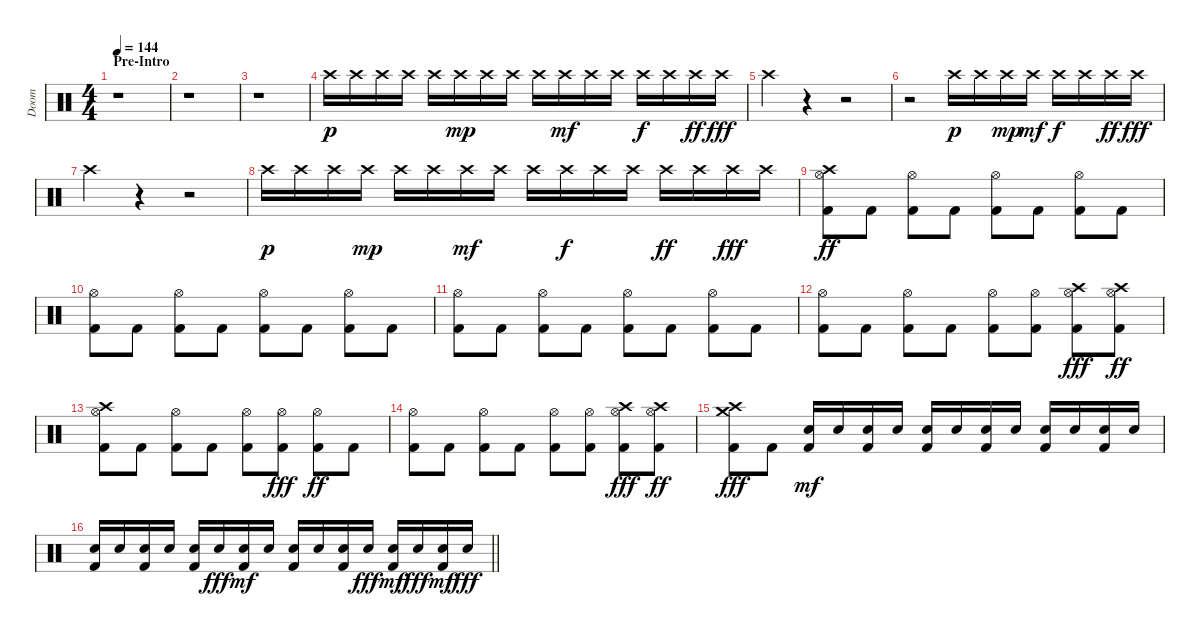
\track ("Doom" "Doom") {instrument percussion}
\staff {score}
\articulation defaults
\ts (4 4)
\section ("" "Pre-Intro")
\tempo 144
\clef neutral
\ks c
r.1{dy p} |
r.1 |
r.1 |
"Crash high (hit)".16 "Crash high (hit)".16 "Crash high (hit)".16 "Crash high (hit)".16 "Crash high (hit)".16 "Crash high (hit)".16{dy mp} "Crash high (hit)".16 "Crash high (hit)".16 "Crash high (hit)".16 "Crash high (hit)".16{dy mf} "Crash high (hit)".16 "Crash high (hit)".16 "Crash high (hit)".16{dy f} "Crash high (hit)".16 "Crash high (hit)".16{dy ff} "Crash high (hit)".16{dy fff} |
"Crash high (hit)".4 r.4 r.2 |
r.2 "Crash high (hit)".16{dy p} "Crash high (hit)".16 "Crash high (hit)".16{dy mp} "Crash high (hit)".16{dy mf} "Crash high (hit)".16{dy f} "Crash high (hit)".16 "Crash high (hit)".16{dy ff} "Crash high (hit)".16{dy fff} |
"Crash high (hit)".4 r.4 r.2 |
"Crash high (hit)".16{dy p} "Crash high (hit)".16 "Crash high (hit)".16 "Crash high (hit)".16{dy mp} "Crash high (hit)".16 "Crash high (hit)".16 "Crash high (hit)".16{dy mf} "Crash high (hit)".16 "Crash high (hit)".16 "Crash high (hit)".16{dy f} "Crash high (hit)".16 "Crash high (hit)".16 "Crash high (hit)".16{dy ff} "Crash high (hit)".16 "Crash high (hit)".16{dy fff} "Crash high (hit)".16 |
("Crash high (hit)" "Kick (hit) 2" "Hi-Hat (open)").8{dy ff} "Kick (hit) 2".8 ("Kick (hit) 2" "Hi-Hat (open)").8 "Kick (hit) 2".8 ("Kick (hit) 2" "Hi-Hat (open)").8 "Kick (hit) 2".8 ("Kick (hit) 2" "Hi-Hat (open)").8 "Kick (hit) 2".8 |
("Kick (hit) 2" "Hi-Hat (open)").8 "Kick (hit) 2".8 ("Kick (hit) 2" "Hi-Hat (open)").8 "Kick (hit) 2".8 ("Kick (hit) 2" "Hi-Hat (open)").8 "Kick (hit) 2".8 ("Kick (hit) 2" "Hi-Hat (open)").8 "Kick (hit) 2".8 |
("Kick (hit) 2" "Hi-Hat (open)").8 "Kick (hit) 2".8 ("Kick (hit) 2" "Hi-Hat (open)").8 "Kick (hit) 2".8 ("Kick (hit) 2" "Hi-Hat (open)").8 "Kick (hit) 2".8 ("Kick (hit) 2" "Hi-Hat (open)").8 "Kick (hit) 2".8 |
("Kick (hit) 2" "Hi-Hat (open)").8 "Kick (hit) 2".8 ("Kick (hit) 2" "Hi-Hat (open)").8 "Kick (hit) 2".8 ("Kick (hit) 2" "Hi-Hat (open)").8 ("Kick (hit) 2" "Hi-Hat (open)").8 ("Kick (hit) 2" "Hi-Hat (open)" "Crash high (hit)").8{dy fff} ("Kick (hit) 2" "Hi-Hat (open)" "Crash high (hit)").8{dy ff} |
("Crash high (hit)" "Kick (hit) 2" "Hi-Hat (open)").8 "Kick (hit) 2".8 ("Kick (hit) 2" "Hi-Hat (open)").8 "Kick (hit) 2".8 ("Kick (hit) 2" "Hi-Hat (open)").8 ("Kick (hit) 2" "Hi-Hat (open)").8{dy fff} ("Kick (hit) 2" "Hi-Hat (open)").8{dy ff} "Kick (hit) 2".8 |
("Kick (hit) 2" "Hi-Hat (open)").8 "Kick (hit) 2".8 ("Kick (hit) 2" "Hi-Hat (open)").8 "Kick (hit) 2".8 ("Kick (hit) 2" "Hi-Hat (open)").8 ("Kick (hit) 2" "Hi-Hat (open)").8 ("Kick (hit) 2" "Hi-Hat (open)" "Crash high (hit)").8{dy fff} ("Kick (hit) 2" "Hi-Hat (open)" "Crash high (hit)").8{dy ff} |
("Crash medium (hit)" "Crash high (hit)" "Kick (hit) 2").8{dy fff} "Kick (hit) 2".8 ("Electric Snare (hit)" "Kick (hit) 2").16{dy mf volume 16} "Electric Snare (hit)".16 ("Electric Snare (hit)" "Kick (hit) 2").16 "Electric Snare (hit)".16 ("Electric Snare (hit)" "Kick (hit) 2").16 "Electric Snare (hit)".16 ("Electric Snare (hit)" "Kick (hit) 2").16 "Electric Snare (hit)".16 ("Electric Snare (hit)" "Kick (hit) 2").16 "Electric Snare (hit)".16 ("Electric Snare (hit)" "Kick (hit) 2").16 "Electric Snare (hit)".16 |
\barLineRight lightlight
("Electric Snare (hit)" "Kick (hit) 2").16 "Electric Snare (hit)".16 ("Electric Snare (hit)" "Kick (hit) 2").16 "Electric Snare (hit)".16 ("Electric Snare (hit)" "Kick (hit) 2").16 "Electric Snare (hit)".16{dy fff} ("Electric Snare (hit)" "Kick (hit) 2").16{dy mf} "Electric Snare (hit)".16 ("Electric Snare (hit)" "Kick (hit) 2").16 "Electric Snare (hit)".16 ("Electric Snare (hit)" "Kick (hit) 2").16 "Electric Snare (hit)".16{dy fff} ("Electric Snare (hit)" "Kick (hit) 2").16{dy mf} "Electric Snare (hit)".16{dy fff} ("Electric Snare (hit)" "Kick (hit) 2").16{dy mf} "Electric Snare (hit)".16{dy fff}
